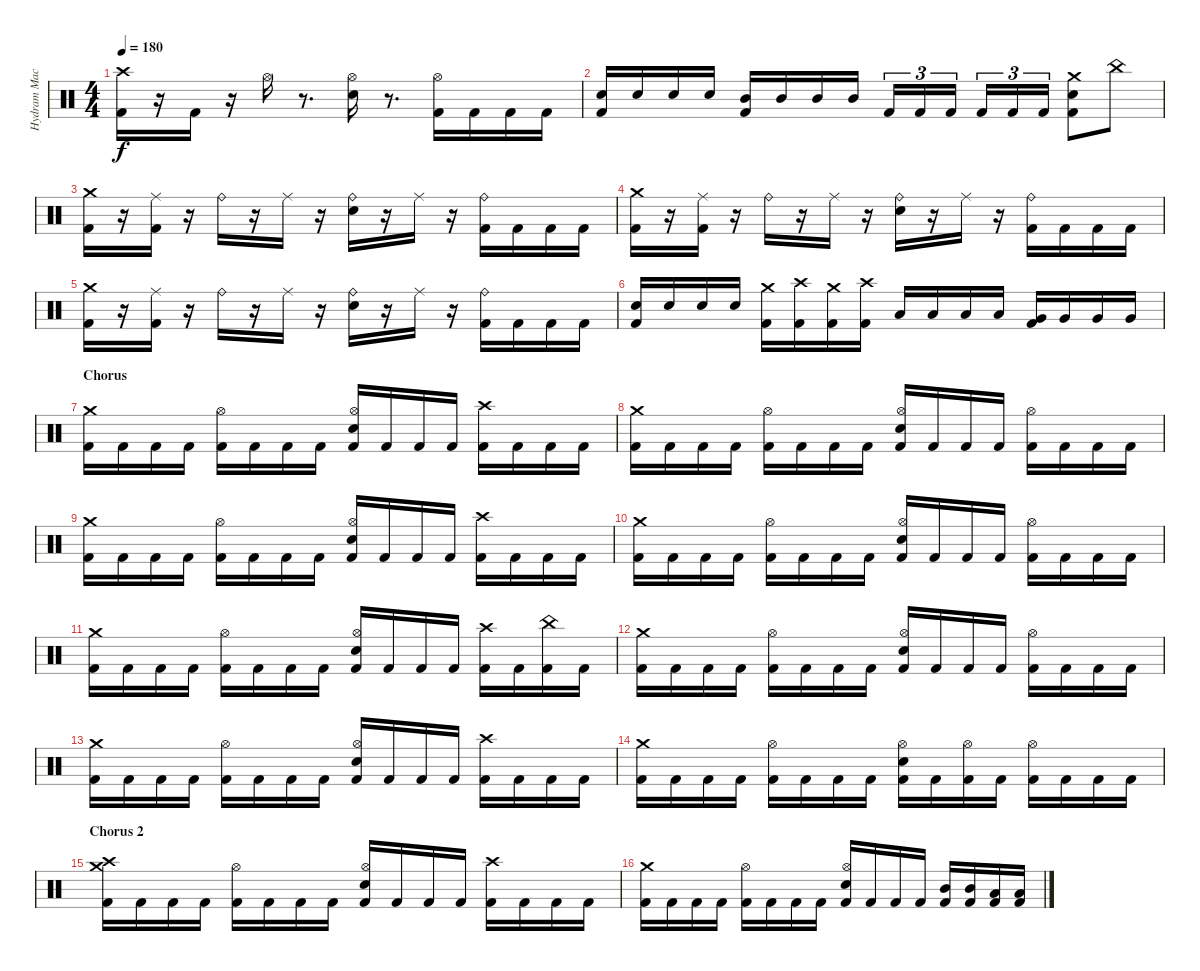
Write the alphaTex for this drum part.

\track ("Hydram Machine" "Hydram Mac") {instrument percussion}
\staff {score}
\articulation defaults
\ts (4 4)
\tempo 180
\clef neutral
\ks c
("Crash high (hit)" "Kick (hit) 2").16{dy f} r.16 "Kick (hit) 2".16 r.16 "Hi-Hat (open)".16 r.8{d} ("Hi-Hat (open)" "Electric Snare (hit)").16 r.8{d} ("Hi-Hat (open)" "Kick (hit) 2").16 "Kick (hit) 2".16 "Kick (hit) 2".16 "Kick (hit) 2".16 |
("Electric Snare (hit)" "Kick (hit) 2").16 "Electric Snare (hit)".16 "Electric Snare (hit)".16 "Electric Snare (hit)".16 ("Mid Tom (hit)" "Kick (hit) 2").16 "Mid Tom (hit)".16 "Mid Tom (hit)".16 "Mid Tom (hit)".16 "Kick (hit) 2".16{tu (3 2)} "Kick (hit) 2".16{tu (3 2)} "Kick (hit) 2".16{tu (3 2) beam splitsecondary} "Kick (hit) 2".16{tu (3 2)} "Kick (hit) 2".16{tu (3 2)} "Kick (hit) 2".16{tu (3 2)} ("Crash medium (hit)" "Electric Snare (hit)" "Kick (hit) 2").8 "China (hit)".8 |
("Crash medium (hit)" "Kick (hit) 2").16 r.16 ("Ride (middle)" "Kick (hit) 2").16 r.16 "Ride (bell)".16 r.16 "Ride (middle)".16 r.16 ("Ride (bell)" "Electric Snare (hit)").16 r.16 "Ride (middle)".16 r.16 ("Ride (bell)" "Kick (hit) 2").16 "Kick (hit) 2".16 "Kick (hit) 2".16 "Kick (hit) 2".16 |
("Crash medium (hit)" "Kick (hit) 2").16 r.16 ("Ride (middle)" "Kick (hit) 2").16 r.16 "Ride (bell)".16 r.16 "Ride (middle)".16 r.16 ("Ride (bell)" "Electric Snare (hit)").16 r.16 "Ride (middle)".16 r.16 ("Ride (bell)" "Kick (hit) 2").16 "Kick (hit) 2".16 "Kick (hit) 2".16 "Kick (hit) 2".16 |
("Crash medium (hit)" "Kick (hit) 2").16 r.16 ("Ride (middle)" "Kick (hit) 2").16 r.16 "Ride (bell)".16 r.16 "Ride (middle)".16 r.16 ("Ride (bell)" "Electric Snare (hit)").16 r.16 "Ride (middle)".16 r.16 ("Ride (bell)" "Kick (hit) 2").16 "Kick (hit) 2".16 "Kick (hit) 2".16 "Kick (hit) 2".16 |
("Electric Snare (hit)" "Kick (hit) 2").16 "Electric Snare (hit)".16 "Electric Snare (hit)".16 "Electric Snare (hit)".16 ("Crash medium (hit)" "Kick (hit) 2").16 ("Crash high (hit)" "Kick (hit) 2").16 ("Crash medium (hit)" "Kick (hit) 2").16 ("Crash high (hit)" "Kick (hit) 2").16 "Low Tom (hit)".16 "Low Tom (hit)".16 "Low Tom (hit)".16 "Low Tom (hit)".16 ("Very Low Tom (hit)" "Kick (hit) 2").16 "Very Low Tom (hit)".16 "Very Low Tom (hit)".16 "Very Low Tom (hit)".16 |
\section ("" "Chorus")
("Crash medium (hit)" "Kick (hit) 2").16 "Kick (hit) 2".16 "Kick (hit) 2".16 "Kick (hit) 2".16 ("Hi-Hat (open)" "Kick (hit) 2").16 "Kick (hit) 2".16 "Kick (hit) 2".16 "Kick (hit) 2".16 ("Hi-Hat (open)" "Electric Snare (hit)" "Kick (hit) 2").16 "Kick (hit) 2".16 "Kick (hit) 2".16 "Kick (hit) 2".16 ("Crash high (hit)" "Kick (hit) 2").16 "Kick (hit) 2".16 "Kick (hit) 2".16 "Kick (hit) 2".16 |
("Crash medium (hit)" "Kick (hit) 2").16 "Kick (hit) 2".16 "Kick (hit) 2".16 "Kick (hit) 2".16 ("Hi-Hat (open)" "Kick (hit) 2").16 "Kick (hit) 2".16 "Kick (hit) 2".16 "Kick (hit) 2".16 ("Hi-Hat (open)" "Electric Snare (hit)" "Kick (hit) 2").16 "Kick (hit) 2".16 "Kick (hit) 2".16 "Kick (hit) 2".16 ("Hi-Hat (open)" "Kick (hit) 2").16 "Kick (hit) 2".16 "Kick (hit) 2".16 "Kick (hit) 2".16 |
("Crash medium (hit)" "Kick (hit) 2").16 "Kick (hit) 2".16 "Kick (hit) 2".16 "Kick (hit) 2".16 ("Hi-Hat (open)" "Kick (hit) 2").16 "Kick (hit) 2".16 "Kick (hit) 2".16 "Kick (hit) 2".16 ("Hi-Hat (open)" "Electric Snare (hit)" "Kick (hit) 2").16 "Kick (hit) 2".16 "Kick (hit) 2".16 "Kick (hit) 2".16 ("Crash high (hit)" "Kick (hit) 2").16 "Kick (hit) 2".16 "Kick (hit) 2".16 "Kick (hit) 2".16 |
("Crash medium (hit)" "Kick (hit) 2").16 "Kick (hit) 2".16 "Kick (hit) 2".16 "Kick (hit) 2".16 ("Hi-Hat (open)" "Kick (hit) 2").16 "Kick (hit) 2".16 "Kick (hit) 2".16 "Kick (hit) 2".16 ("Hi-Hat (open)" "Electric Snare (hit)" "Kick (hit) 2").16 "Kick (hit) 2".16 "Kick (hit) 2".16 "Kick (hit) 2".16 ("Hi-Hat (open)" "Kick (hit) 2").16 "Kick (hit) 2".16 "Kick (hit) 2".16 "Kick (hit) 2".16 |
("Crash medium (hit)" "Kick (hit) 2").16 "Kick (hit) 2".16 "Kick (hit) 2".16 "Kick (hit) 2".16 ("Hi-Hat (open)" "Kick (hit) 2").16 "Kick (hit) 2".16 "Kick (hit) 2".16 "Kick (hit) 2".16 ("Hi-Hat (open)" "Electric Snare (hit)" "Kick (hit) 2").16 "Kick (hit) 2".16 "Kick (hit) 2".16 "Kick (hit) 2".16 ("Crash high (hit)" "Kick (hit) 2").16 "Kick (hit) 2".16 ("China (hit)" "Kick (hit) 2").16 "Kick (hit) 2".16 |
("Crash medium (hit)" "Kick (hit) 2").16 "Kick (hit) 2".16 "Kick (hit) 2".16 "Kick (hit) 2".16 ("Hi-Hat (open)" "Kick (hit) 2").16 "Kick (hit) 2".16 "Kick (hit) 2".16 "Kick (hit) 2".16 ("Hi-Hat (open)" "Electric Snare (hit)" "Kick (hit) 2").16 "Kick (hit) 2".16 "Kick (hit) 2".16 "Kick (hit) 2".16 ("Hi-Hat (open)" "Kick (hit) 2").16 "Kick (hit) 2".16 "Kick (hit) 2".16 "Kick (hit) 2".16 |
("Crash medium (hit)" "Kick (hit) 2").16 "Kick (hit) 2".16 "Kick (hit) 2".16 "Kick (hit) 2".16 ("Hi-Hat (open)" "Kick (hit) 2").16 "Kick (hit) 2".16 "Kick (hit) 2".16 "Kick (hit) 2".16 ("Hi-Hat (open)" "Electric Snare (hit)" "Kick (hit) 2").16 "Kick (hit) 2".16 "Kick (hit) 2".16 "Kick (hit) 2".16 ("Crash high (hit)" "Kick (hit) 2").16 "Kick (hit) 2".16 "Kick (hit) 2".16 "Kick (hit) 2".16 |
("Crash medium (hit)" "Kick (hit) 2").16 "Kick (hit) 2".16 "Kick (hit) 2".16 "Kick (hit) 2".16 ("Hi-Hat (open)" "Kick (hit) 2").16 "Kick (hit) 2".16 "Kick (hit) 2".16 "Kick (hit) 2".16 ("Hi-Hat (open)" "Electric Snare (hit)" "Kick (hit) 2").16 "Kick (hit) 2".16 ("Hi-Hat (open)" "Kick (hit) 2").16 "Kick (hit) 2".16 ("Hi-Hat (open)" "Kick (hit) 2").16 "Kick (hit) 2".16 "Kick (hit) 2".16 "Kick (hit) 2".16 |
\section ("" "Chorus 2")
("Crash medium (hit)" "Crash high (hit)" "Kick (hit) 2").16 "Kick (hit) 2".16 "Kick (hit) 2".16 "Kick (hit) 2".16 ("Hi-Hat (open)" "Kick (hit) 2").16 "Kick (hit) 2".16 "Kick (hit) 2".16 "Kick (hit) 2".16 ("Hi-Hat (open)" "Electric Snare (hit)" "Kick (hit) 2").16 "Kick (hit) 2".16 "Kick (hit) 2".16 "Kick (hit) 2".16 ("Crash high (hit)" "Kick (hit) 2").16 "Kick (hit) 2".16 "Kick (hit) 2".16 "Kick (hit) 2".16 |
("Crash medium (hit)" "Kick (hit) 2").16 "Kick (hit) 2".16 "Kick (hit) 2".16 "Kick (hit) 2".16 ("Hi-Hat (open)" "Kick (hit) 2").16 "Kick (hit) 2".16 "Kick (hit) 2".16 "Kick (hit) 2".16 ("Hi-Hat (open)" "Electric Snare (hit)" "Kick (hit) 2").16 "Kick (hit) 2".16 "Kick (hit) 2".16 "Kick (hit) 2".16 ("Mid Tom (hit)" "Kick (hit) 2").16 ("Mid Tom (hit)" "Kick (hit) 2").16 ("Low Tom (hit)" "Kick (hit) 2").16 ("Low Tom (hit)" "Kick (hit) 2").16
